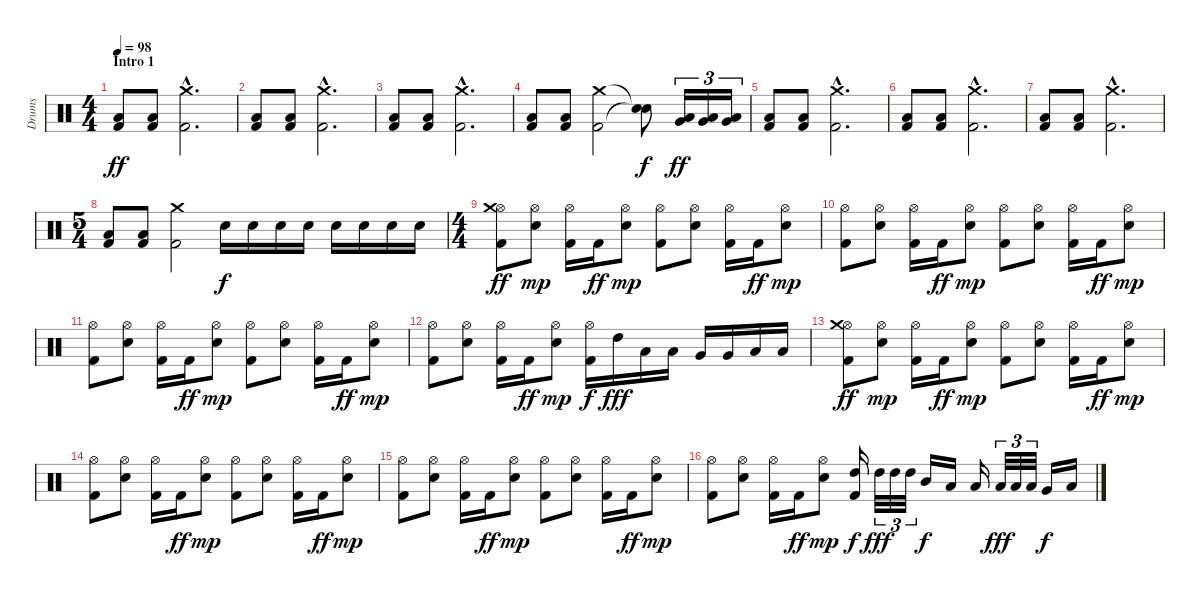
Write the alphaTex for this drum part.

\track ("Drums" "Drums") {instrument percussion}
\staff {score}
\articulation defaults
\ts (4 4)
\section ("" "Intro 1")
\tempo 98
\clef neutral
\ks c
("Kick (hit) 2" "Low Floor Tom (hit)").8{dy ff} ("Kick (hit) 2" "Low Floor Tom (hit)").8 ("Kick (hit) 2"{hac} "Crash medium (hit)"{hac}).2{d} |
("Kick (hit) 2" "Low Floor Tom (hit)").8 ("Kick (hit) 2" "Low Floor Tom (hit)").8 ("Kick (hit) 2"{hac} "Crash medium (hit)"{hac}).2{d} |
("Kick (hit) 2" "Low Floor Tom (hit)").8 ("Kick (hit) 2" "Low Floor Tom (hit)").8 ("Kick (hit) 2"{hac} "Crash medium (hit)"{hac}).2{d} |
("Kick (hit) 2" "Low Floor Tom (hit)").8 ("Kick (hit) 2" "Low Floor Tom (hit)").8 ("Kick (hit) 2" "Crash medium (hit)").2 ("Snare (hit)"{t} "Snare (hit)"{t}).8{dy f} ("Very Low Tom (hit)" "Low Floor Tom (hit)").16{tu (3 2) dy ff} ("Very Low Tom (hit)" "Low Floor Tom (hit)").16{tu (3 2)} ("Very Low Tom (hit)" "Low Floor Tom (hit)").16{tu (3 2)} |
("Kick (hit) 2" "Low Floor Tom (hit)").8 ("Kick (hit) 2" "Low Floor Tom (hit)").8 ("Kick (hit) 2"{hac} "Crash medium (hit)"{hac}).2{d} |
("Kick (hit) 2" "Low Floor Tom (hit)").8 ("Kick (hit) 2" "Low Floor Tom (hit)").8 ("Kick (hit) 2"{hac} "Crash medium (hit)"{hac}).2{d} |
("Kick (hit) 2" "Low Floor Tom (hit)").8 ("Kick (hit) 2" "Low Floor Tom (hit)").8 ("Kick (hit) 2"{hac} "Crash medium (hit)"{hac}).2{d} |
\ts (5 4)
("Kick (hit) 2" "Low Floor Tom (hit)").8 ("Kick (hit) 2" "Low Floor Tom (hit)").8 ("Kick (hit) 2" "Crash medium (hit)").2 "Snare (hit) 2".16{dy f} "Snare (hit) 2".16 "Snare (hit) 2".16 "Snare (hit) 2".16 "Snare (hit) 2".16 "Snare (hit) 2".16 "Snare (hit) 2".16 "Snare (hit) 2".16 |
\ts (4 4)
("Kick (hit) 2" "Hi-Hat (open)" "Crash medium (hit)").8{dy ff} ("Hi-Hat (open)" "Snare (hit) 2").8{dy mp} ("Kick (hit) 2" "Hi-Hat (open)").16 "Kick (hit) 2".16{dy ff} ("Hi-Hat (open)" "Snare (hit) 2").8{dy mp} ("Kick (hit) 2" "Hi-Hat (open)").8 ("Hi-Hat (open)" "Snare (hit) 2").8 ("Kick (hit) 2" "Hi-Hat (open)").16 "Kick (hit) 2".16{dy ff} ("Hi-Hat (open)" "Snare (hit) 2").8{dy mp} |
("Kick (hit) 2" "Hi-Hat (open)").8 ("Hi-Hat (open)" "Snare (hit) 2").8 ("Kick (hit) 2" "Hi-Hat (open)").16 "Kick (hit) 2".16{dy ff} ("Hi-Hat (open)" "Snare (hit) 2").8{dy mp} ("Kick (hit) 2" "Hi-Hat (open)").8 ("Hi-Hat (open)" "Snare (hit) 2").8 ("Kick (hit) 2" "Hi-Hat (open)").16 "Kick (hit) 2".16{dy ff} ("Hi-Hat (open)" "Snare (hit) 2").8{dy mp} |
("Kick (hit) 2" "Hi-Hat (open)").8 ("Hi-Hat (open)" "Snare (hit) 2").8 ("Kick (hit) 2" "Hi-Hat (open)").16 "Kick (hit) 2".16{dy ff} ("Hi-Hat (open)" "Snare (hit) 2").8{dy mp} ("Kick (hit) 2" "Hi-Hat (open)").8 ("Hi-Hat (open)" "Snare (hit) 2").8 ("Kick (hit) 2" "Hi-Hat (open)").16 "Kick (hit) 2".16{dy ff} ("Hi-Hat (open)" "Snare (hit) 2").8{dy mp} |
("Kick (hit) 2" "Hi-Hat (open)").8 ("Hi-Hat (open)" "Snare (hit) 2").8 ("Kick (hit) 2" "Hi-Hat (open)").16 "Kick (hit) 2".16{dy ff} ("Hi-Hat (open)" "Snare (hit) 2").8{dy mp} ("Kick (hit) 2" "Hi-Hat (open)").16{dy f} "High Tom (hit)".16{dy fff} "Low Tom (hit)".16 "Low Tom (hit)".16 "Very Low Tom (hit)".16 "Very Low Tom (hit)".16 "Low Floor Tom (hit)".16 "Low Floor Tom (hit)".16 |
("Kick (hit) 2" "Hi-Hat (open)" "Crash medium (hit)").8{dy ff} ("Hi-Hat (open)" "Snare (hit) 2").8{dy mp} ("Kick (hit) 2" "Hi-Hat (open)").16 "Kick (hit) 2".16{dy ff} ("Hi-Hat (open)" "Snare (hit) 2").8{dy mp} ("Kick (hit) 2" "Hi-Hat (open)").8 ("Hi-Hat (open)" "Snare (hit) 2").8 ("Kick (hit) 2" "Hi-Hat (open)").16 "Kick (hit) 2".16{dy ff} ("Hi-Hat (open)" "Snare (hit) 2").8{dy mp} |
("Kick (hit) 2" "Hi-Hat (open)").8 ("Hi-Hat (open)" "Snare (hit) 2").8 ("Kick (hit) 2" "Hi-Hat (open)").16 "Kick (hit) 2".16{dy ff} ("Hi-Hat (open)" "Snare (hit) 2").8{dy mp} ("Kick (hit) 2" "Hi-Hat (open)").8 ("Hi-Hat (open)" "Snare (hit) 2").8 ("Kick (hit) 2" "Hi-Hat (open)").16 "Kick (hit) 2".16{dy ff} ("Hi-Hat (open)" "Snare (hit) 2").8{dy mp} |
("Kick (hit) 2" "Hi-Hat (open)").8 ("Hi-Hat (open)" "Snare (hit) 2").8 ("Kick (hit) 2" "Hi-Hat (open)").16 "Kick (hit) 2".16{dy ff} ("Hi-Hat (open)" "Snare (hit) 2").8{dy mp} ("Kick (hit) 2" "Hi-Hat (open)").8 ("Hi-Hat (open)" "Snare (hit) 2").8 ("Kick (hit) 2" "Hi-Hat (open)").16 "Kick (hit) 2".16{dy ff} ("Hi-Hat (open)" "Snare (hit) 2").8{dy mp} |
("Kick (hit) 2" "Hi-Hat (open)").8 ("Hi-Hat (open)" "Snare (hit) 2").8 ("Kick (hit) 2" "Hi-Hat (open)").16 "Kick (hit) 2".16{dy ff} ("Hi-Hat (open)" "Snare (hit) 2").8{dy mp} ("Kick (hit) 2" "High Tom (hit)").16{dy f} "High Tom (hit)".32{tu (3 2) dy fff} "High Tom (hit)".32{tu (3 2)} "High Tom (hit)".32{tu (3 2)} "Mid Tom (hit)".16{dy f} "Low Tom (hit)".16 "Low Tom (hit)".16 "Low Tom (hit)".32{tu (3 2) dy fff} "Low Tom (hit)".32{tu (3 2)} "Low Tom (hit)".32{tu (3 2)} "Very Low Tom (hit)".16{dy f} "Low Floor Tom (hit)".16
